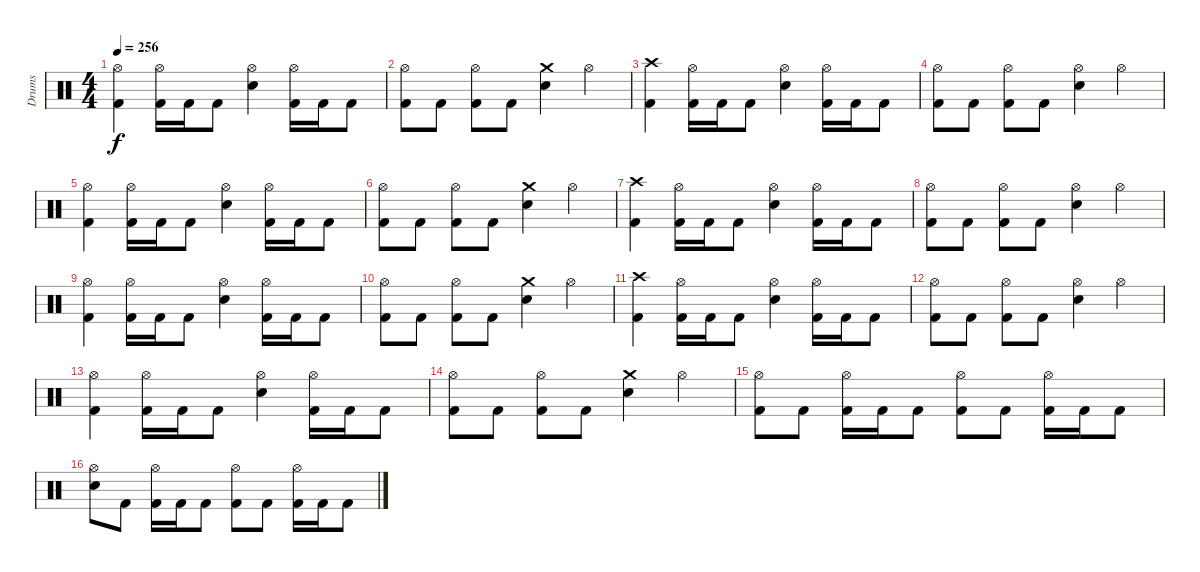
\track ("Drums" "Drums") {instrument percussion}
\staff {score}
\articulation defaults
\ts (4 4)
\tempo 256
\clef neutral
\ks c
("Hi-Hat (open)" "Kick (hit) 2").4{dy f} ("Hi-Hat (open)" "Kick (hit) 2").16 "Kick (hit) 2".16 "Kick (hit) 2".8 ("Hi-Hat (open)" "Electric Snare (hit)").4 ("Hi-Hat (open)" "Kick (hit) 2").16 "Kick (hit) 2".16 "Kick (hit) 2".8 |
("Hi-Hat (open)" "Kick (hit) 2").8 "Kick (hit) 2".8 ("Hi-Hat (open)" "Kick (hit) 2").8 "Kick (hit) 2".8 ("Crash medium (hit)" "Electric Snare (hit)").4 "Hi-Hat (open)".4 |
("Crash high (hit)" "Kick (hit) 2").4 ("Hi-Hat (open)" "Kick (hit) 2").16 "Kick (hit) 2".16 "Kick (hit) 2".8 ("Hi-Hat (open)" "Electric Snare (hit)").4 ("Hi-Hat (open)" "Kick (hit) 2").16 "Kick (hit) 2".16 "Kick (hit) 2".8 |
("Hi-Hat (open)" "Kick (hit) 2").8 "Kick (hit) 2".8 ("Hi-Hat (open)" "Kick (hit) 2").8 "Kick (hit) 2".8 ("Hi-Hat (open)" "Electric Snare (hit)").4 "Hi-Hat (open)".4 |
("Hi-Hat (open)" "Kick (hit) 2").4 ("Hi-Hat (open)" "Kick (hit) 2").16 "Kick (hit) 2".16 "Kick (hit) 2".8 ("Hi-Hat (open)" "Electric Snare (hit)").4 ("Hi-Hat (open)" "Kick (hit) 2").16 "Kick (hit) 2".16 "Kick (hit) 2".8 |
("Hi-Hat (open)" "Kick (hit) 2").8 "Kick (hit) 2".8 ("Hi-Hat (open)" "Kick (hit) 2").8 "Kick (hit) 2".8 ("Crash medium (hit)" "Electric Snare (hit)").4 "Hi-Hat (open)".4 |
("Crash high (hit)" "Kick (hit) 2").4 ("Hi-Hat (open)" "Kick (hit) 2").16 "Kick (hit) 2".16 "Kick (hit) 2".8 ("Hi-Hat (open)" "Electric Snare (hit)").4 ("Hi-Hat (open)" "Kick (hit) 2").16 "Kick (hit) 2".16 "Kick (hit) 2".8 |
("Hi-Hat (open)" "Kick (hit) 2").8 "Kick (hit) 2".8 ("Hi-Hat (open)" "Kick (hit) 2").8 "Kick (hit) 2".8 ("Hi-Hat (open)" "Electric Snare (hit)").4 "Hi-Hat (open)".4 |
("Hi-Hat (open)" "Kick (hit) 2").4 ("Hi-Hat (open)" "Kick (hit) 2").16 "Kick (hit) 2".16 "Kick (hit) 2".8 ("Hi-Hat (open)" "Electric Snare (hit)").4 ("Hi-Hat (open)" "Kick (hit) 2").16 "Kick (hit) 2".16 "Kick (hit) 2".8 |
("Hi-Hat (open)" "Kick (hit) 2").8 "Kick (hit) 2".8 ("Hi-Hat (open)" "Kick (hit) 2").8 "Kick (hit) 2".8 ("Crash medium (hit)" "Electric Snare (hit)").4 "Hi-Hat (open)".4 |
("Crash high (hit)" "Kick (hit) 2").4 ("Hi-Hat (open)" "Kick (hit) 2").16 "Kick (hit) 2".16 "Kick (hit) 2".8 ("Hi-Hat (open)" "Electric Snare (hit)").4 ("Hi-Hat (open)" "Kick (hit) 2").16 "Kick (hit) 2".16 "Kick (hit) 2".8 |
("Hi-Hat (open)" "Kick (hit) 2").8 "Kick (hit) 2".8 ("Hi-Hat (open)" "Kick (hit) 2").8 "Kick (hit) 2".8 ("Hi-Hat (open)" "Electric Snare (hit)").4 "Hi-Hat (open)".4 |
("Hi-Hat (open)" "Kick (hit) 2").4 ("Hi-Hat (open)" "Kick (hit) 2").16 "Kick (hit) 2".16 "Kick (hit) 2".8 ("Hi-Hat (open)" "Electric Snare (hit)").4 ("Hi-Hat (open)" "Kick (hit) 2").16 "Kick (hit) 2".16 "Kick (hit) 2".8 |
("Hi-Hat (open)" "Kick (hit) 2").8 "Kick (hit) 2".8 ("Hi-Hat (open)" "Kick (hit) 2").8 "Kick (hit) 2".8 ("Crash medium (hit)" "Electric Snare (hit)").4 "Hi-Hat (open)".4 |
("Hi-Hat (open)" "Kick (hit) 2").8 "Kick (hit) 2".8 ("Hi-Hat (open)" "Kick (hit) 2").16 "Kick (hit) 2".16 "Kick (hit) 2".8 ("Hi-Hat (open)" "Kick (hit) 2").8 "Kick (hit) 2".8 ("Hi-Hat (open)" "Kick (hit) 2").16 "Kick (hit) 2".16 "Kick (hit) 2".8 |
("Hi-Hat (open)" "Electric Snare (hit)").8 "Kick (hit) 2".8 ("Hi-Hat (open)" "Kick (hit) 2").16 "Kick (hit) 2".16 "Kick (hit) 2".8 ("Hi-Hat (open)" "Kick (hit) 2").8 "Kick (hit) 2".8 ("Hi-Hat (open)" "Kick (hit) 2").16 "Kick (hit) 2".16 "Kick (hit) 2".8
